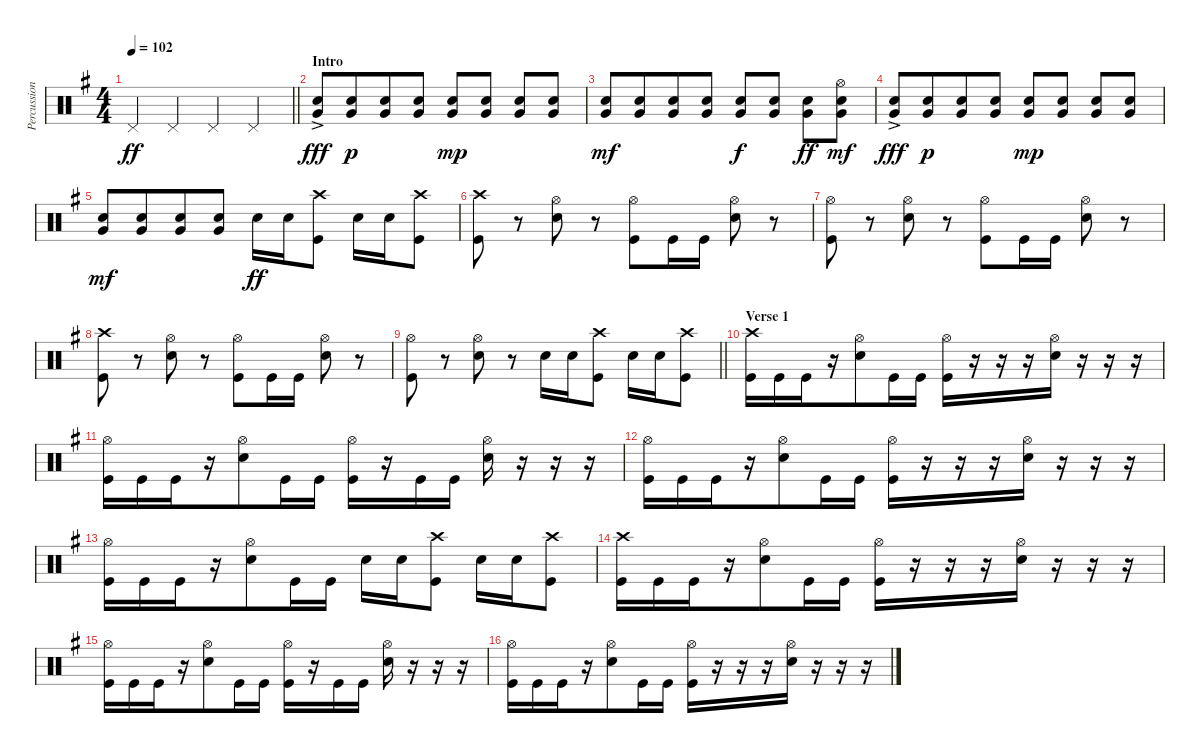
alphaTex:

\track ("Percussion" "Percussion") {instrument percussion}
\staff {score}
\articulation defaults
\ts (4 4)
\tempo 102
\clef neutral
\barLineRight lightlight
\ks g "Pedal Hi-Hat (hit)".4{dy ff} "Pedal Hi-Hat (hit)".4{beam merge} "Pedal Hi-Hat (hit)".4 "Pedal Hi-Hat (hit)".4
|
\section ("" "Intro")
("Very Low Tom (hit)"{ac} "Electric Snare (hit)"{ac}).8{dy fff} ("Very Low Tom (hit)" "Electric Snare (hit)").8{dy p beam merge} ("Very Low Tom (hit)" "Electric Snare (hit)").8{beam merge} ("Very Low Tom (hit)" "Electric Snare (hit)").8 ("Very Low Tom (hit)" "Electric Snare (hit)").8{dy mp} ("Very Low Tom (hit)" "Electric Snare (hit)").8 ("Very Low Tom (hit)" "Electric Snare (hit)").8 ("Very Low Tom (hit)" "Electric Snare (hit)").8 |
("Very Low Tom (hit)" "Electric Snare (hit)").8{dy mf} ("Very Low Tom (hit)" "Electric Snare (hit)").8{beam merge} ("Very Low Tom (hit)" "Electric Snare (hit)").8{beam merge} ("Very Low Tom (hit)" "Electric Snare (hit)").8 ("Very Low Tom (hit)" "Electric Snare (hit)").8{dy f} ("Very Low Tom (hit)" "Electric Snare (hit)").8 ("Very Low Tom (hit)" "Electric Snare (hit)").8{dy ff} ("Very Low Tom (hit)" "Electric Snare (hit)" "Hi-Hat (open)").8{dy mf} |
("Very Low Tom (hit)"{ac} "Electric Snare (hit)"{ac}).8{dy fff} ("Very Low Tom (hit)" "Electric Snare (hit)").8{dy p beam merge} ("Very Low Tom (hit)" "Electric Snare (hit)").8{beam merge} ("Very Low Tom (hit)" "Electric Snare (hit)").8 ("Very Low Tom (hit)" "Electric Snare (hit)").8{dy mp} ("Very Low Tom (hit)" "Electric Snare (hit)").8 ("Very Low Tom (hit)" "Electric Snare (hit)").8 ("Very Low Tom (hit)" "Electric Snare (hit)").8 |
("Very Low Tom (hit)" "Electric Snare (hit)").8{dy mf} ("Very Low Tom (hit)" "Electric Snare (hit)").8{beam merge} ("Very Low Tom (hit)" "Electric Snare (hit)").8{beam merge} ("Very Low Tom (hit)" "Electric Snare (hit)").8 "Electric Snare (hit)".16{dy ff} "Electric Snare (hit)".16 ("Kick (hit)" "Crash high (hit)").8 "Electric Snare (hit)".16 "Electric Snare (hit)".16 ("Kick (hit)" "Crash high (hit)").8 |
("Kick (hit)" "Crash high (hit)").8 r.8 ("Electric Snare (hit)" "Hi-Hat (open)").8 r.8{beam merge} ("Kick (hit)" "Hi-Hat (open)").8 "Kick (hit)".16 "Kick (hit)".16 ("Electric Snare (hit)" "Hi-Hat (open)").8 r.8 |
("Kick (hit)" "Hi-Hat (open)").8 r.8 ("Electric Snare (hit)" "Hi-Hat (open)").8 r.8{beam merge} ("Kick (hit)" "Hi-Hat (open)").8 "Kick (hit)".16 "Kick (hit)".16 ("Electric Snare (hit)" "Hi-Hat (open)").8 r.8 |
("Kick (hit)" "Crash high (hit)").8 r.8 ("Electric Snare (hit)" "Hi-Hat (open)").8 r.8{beam merge} ("Kick (hit)" "Hi-Hat (open)").8 "Kick (hit)".16 "Kick (hit)".16 ("Electric Snare (hit)" "Hi-Hat (open)").8 r.8 |
\barLineRight lightlight
("Kick (hit)" "Hi-Hat (open)").8 r.8 ("Electric Snare (hit)" "Hi-Hat (open)").8 r.8 "Electric Snare (hit)".16 "Electric Snare (hit)".16 ("Kick (hit)" "Crash high (hit)").8 "Electric Snare (hit)".16 "Electric Snare (hit)".16 ("Kick (hit)" "Crash high (hit)").8 |
\section ("" "Verse 1")
("Kick (hit)" "Crash high (hit)").16{beam merge} "Kick (hit)".16 "Kick (hit)".16{beam merge} r.16 ("Electric Snare (hit)" "Hi-Hat (open)").8 "Kick (hit)".16{beam merge} "Kick (hit)".16 ("Kick (hit)" "Hi-Hat (open)").16{beam merge} r.16 r.16{beam merge} r.16 ("Electric Snare (hit)" "Hi-Hat (open)").16 r.16{beam merge} r.16{beam merge} r.16 |
("Kick (hit)" "Hi-Hat (open)").16{beam merge} "Kick (hit)".16 "Kick (hit)".16{beam merge} r.16 ("Electric Snare (hit)" "Hi-Hat (open)").8 "Kick (hit)".16{beam merge} "Kick (hit)".16 ("Kick (hit)" "Hi-Hat (open)").16{beam merge} r.16 "Kick (hit)".16{beam merge} "Kick (hit)".16 ("Electric Snare (hit)" "Hi-Hat (open)").16 r.16{beam merge} r.16{beam merge} r.16 |
("Kick (hit)" "Hi-Hat (open)").16{beam merge} "Kick (hit)".16 "Kick (hit)".16{beam merge} r.16 ("Electric Snare (hit)" "Hi-Hat (open)").8 "Kick (hit)".16{beam merge} "Kick (hit)".16 ("Kick (hit)" "Hi-Hat (open)").16{beam merge} r.16 r.16{beam merge} r.16 ("Electric Snare (hit)" "Hi-Hat (open)").16 r.16{beam merge} r.16{beam merge} r.16 |
("Kick (hit)" "Hi-Hat (open)").16{beam merge} "Kick (hit)".16 "Kick (hit)".16{beam merge} r.16 ("Electric Snare (hit)" "Hi-Hat (open)").8 "Kick (hit)".16{beam merge} "Kick (hit)".16 "Electric Snare (hit)".16 "Electric Snare (hit)".16 ("Kick (hit)" "Crash high (hit)").8 "Electric Snare (hit)".16 "Electric Snare (hit)".16 ("Kick (hit)" "Crash high (hit)").8 |
("Kick (hit)" "Crash high (hit)").16{beam merge} "Kick (hit)".16 "Kick (hit)".16{beam merge} r.16 ("Electric Snare (hit)" "Hi-Hat (open)").8 "Kick (hit)".16{beam merge} "Kick (hit)".16 ("Kick (hit)" "Hi-Hat (open)").16{beam merge} r.16 r.16{beam merge} r.16 ("Electric Snare (hit)" "Hi-Hat (open)").16 r.16{beam merge} r.16{beam merge} r.16 |
("Kick (hit)" "Hi-Hat (open)").16{beam merge} "Kick (hit)".16 "Kick (hit)".16{beam merge} r.16 ("Electric Snare (hit)" "Hi-Hat (open)").8 "Kick (hit)".16{beam merge} "Kick (hit)".16 ("Kick (hit)" "Hi-Hat (open)").16{beam merge} r.16 "Kick (hit)".16{beam merge} "Kick (hit)".16 ("Electric Snare (hit)" "Hi-Hat (open)").16 r.16{beam merge} r.16{beam merge} r.16 |
("Kick (hit)" "Hi-Hat (open)").16{beam merge} "Kick (hit)".16 "Kick (hit)".16{beam merge} r.16 ("Electric Snare (hit)" "Hi-Hat (open)").8 "Kick (hit)".16{beam merge} "Kick (hit)".16 ("Kick (hit)" "Hi-Hat (open)").16{beam merge} r.16 r.16{beam merge} r.16 ("Electric Snare (hit)" "Hi-Hat (open)").16 r.16{beam merge} r.16{beam merge} r.16
